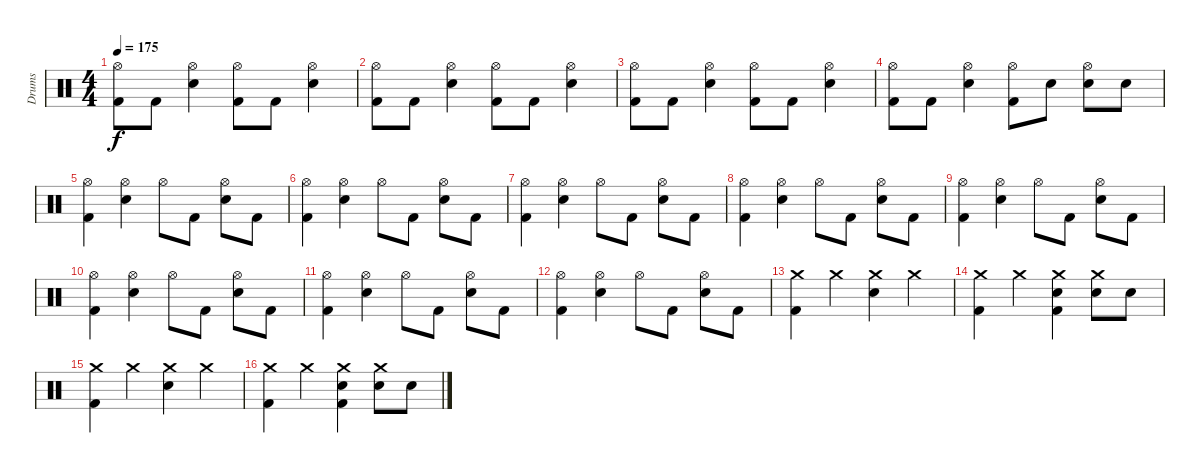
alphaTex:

\track ("Drums" "Drums") {instrument percussion}
\staff {score}
\articulation defaults
\ts (4 4)
\tempo 175
\clef neutral
\ks c
("Hi-Hat (open)" "Kick (hit) 2").8{dy f} "Kick (hit) 2".8 ("Hi-Hat (open)" "Snare (hit) 2").4 ("Hi-Hat (open)" "Kick (hit) 2").8 "Kick (hit) 2".8 ("Hi-Hat (open)" "Snare (hit) 2").4 |
("Hi-Hat (open)" "Kick (hit) 2").8 "Kick (hit) 2".8 ("Hi-Hat (open)" "Snare (hit) 2").4 ("Hi-Hat (open)" "Kick (hit) 2").8 "Kick (hit) 2".8 ("Hi-Hat (open)" "Snare (hit) 2").4 |
("Hi-Hat (open)" "Kick (hit) 2").8 "Kick (hit) 2".8 ("Hi-Hat (open)" "Snare (hit) 2").4 ("Hi-Hat (open)" "Kick (hit) 2").8 "Kick (hit) 2".8 ("Hi-Hat (open)" "Snare (hit) 2").4 |
("Hi-Hat (open)" "Kick (hit) 2").8 "Kick (hit) 2".8 ("Hi-Hat (open)" "Snare (hit) 2").4 ("Hi-Hat (open)" "Kick (hit) 2").8 "Snare (hit) 2".8 ("Hi-Hat (open)" "Snare (hit) 2").8 "Snare (hit) 2".8 |
("Hi-Hat (open)" "Kick (hit) 2").4 ("Hi-Hat (open)" "Snare (hit) 2").4 "Hi-Hat (open)".8 "Kick (hit) 2".8 ("Hi-Hat (open)" "Snare (hit) 2").8 "Kick (hit) 2".8 |
("Hi-Hat (open)" "Kick (hit) 2").4 ("Hi-Hat (open)" "Snare (hit) 2").4 "Hi-Hat (open)".8 "Kick (hit) 2".8 ("Hi-Hat (open)" "Snare (hit) 2").8 "Kick (hit) 2".8 |
("Hi-Hat (open)" "Kick (hit) 2").4 ("Hi-Hat (open)" "Snare (hit) 2").4 "Hi-Hat (open)".8 "Kick (hit) 2".8 ("Hi-Hat (open)" "Snare (hit) 2").8 "Kick (hit) 2".8 |
("Hi-Hat (open)" "Kick (hit) 2").4 ("Hi-Hat (open)" "Snare (hit) 2").4 "Hi-Hat (open)".8 "Kick (hit) 2".8 ("Hi-Hat (open)" "Snare (hit) 2").8 "Kick (hit) 2".8 |
("Hi-Hat (open)" "Kick (hit) 2").4 ("Hi-Hat (open)" "Snare (hit) 2").4 "Hi-Hat (open)".8 "Kick (hit) 2".8 ("Hi-Hat (open)" "Snare (hit) 2").8 "Kick (hit) 2".8 |
("Hi-Hat (open)" "Kick (hit) 2").4 ("Hi-Hat (open)" "Snare (hit) 2").4 "Hi-Hat (open)".8 "Kick (hit) 2".8 ("Hi-Hat (open)" "Snare (hit) 2").8 "Kick (hit) 2".8 |
("Hi-Hat (open)" "Kick (hit) 2").4 ("Hi-Hat (open)" "Snare (hit) 2").4 "Hi-Hat (open)".8 "Kick (hit) 2".8 ("Hi-Hat (open)" "Snare (hit) 2").8 "Kick (hit) 2".8 |
("Hi-Hat (open)" "Kick (hit) 2").4 ("Hi-Hat (open)" "Snare (hit) 2").4 "Hi-Hat (open)".8 "Kick (hit) 2".8 ("Hi-Hat (open)" "Snare (hit) 2").8 "Kick (hit) 2".8 |
("Crash medium (hit)" "Kick (hit) 2").4 "Crash medium (hit)".4 ("Crash medium (hit)" "Snare (hit) 2").4 "Crash medium (hit)".4 |
("Crash medium (hit)" "Kick (hit) 2").4 "Crash medium (hit)".4 ("Crash medium (hit)" "Snare (hit) 2" "Kick (hit) 2").4 ("Crash medium (hit)" "Snare (hit) 2").8 "Snare (hit) 2".8 |
("Crash medium (hit)" "Kick (hit) 2").4 "Crash medium (hit)".4 ("Crash medium (hit)" "Snare (hit) 2").4 "Crash medium (hit)".4 |
("Crash medium (hit)" "Kick (hit) 2").4 "Crash medium (hit)".4 ("Crash medium (hit)" "Snare (hit) 2" "Kick (hit) 2").4 ("Crash medium (hit)" "Snare (hit) 2").8 "Snare (hit) 2".8
